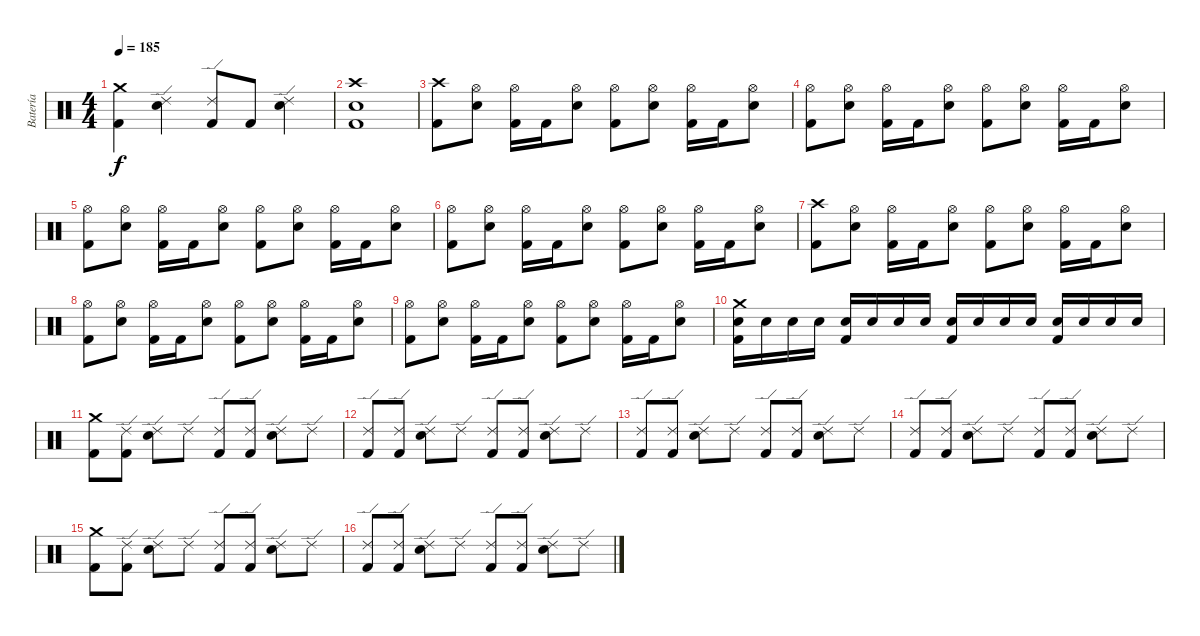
\track ("Batería" "Batería") {instrument percussion}
\staff {score}
\articulation defaults
\ts (4 4)
\tempo 185
\clef neutral
\ks c
("Crash medium (hit)" "Kick (hit) 2").4{dy f} ("Ride (edge) 2" "Electric Snare (hit)").4 ("Ride (edge) 2" "Kick (hit) 2").8 "Kick (hit) 2".8 ("Ride (edge) 2" "Electric Snare (hit)").4 |
("Crash high (hit)" "Electric Snare (hit)" "Kick (hit) 2").1 |
("Crash high (hit)" "Kick (hit) 2").8 ("Hi-Hat (open)" "Electric Snare (hit)").8 ("Hi-Hat (open)" "Kick (hit) 2").16 "Kick (hit) 2".16 ("Hi-Hat (open)" "Electric Snare (hit)").8 ("Hi-Hat (open)" "Kick (hit) 2").8 ("Hi-Hat (open)" "Electric Snare (hit)").8 ("Hi-Hat (open)" "Kick (hit) 2").16 "Kick (hit) 2".16 ("Hi-Hat (open)" "Electric Snare (hit)").8 |
("Hi-Hat (open)" "Kick (hit) 2").8 ("Hi-Hat (open)" "Electric Snare (hit)").8 ("Hi-Hat (open)" "Kick (hit) 2").16 "Kick (hit) 2".16 ("Hi-Hat (open)" "Electric Snare (hit)").8 ("Hi-Hat (open)" "Kick (hit) 2").8 ("Hi-Hat (open)" "Electric Snare (hit)").8 ("Hi-Hat (open)" "Kick (hit) 2").16 "Kick (hit) 2".16 ("Hi-Hat (open)" "Electric Snare (hit)").8 |
("Hi-Hat (open)" "Kick (hit) 2").8 ("Hi-Hat (open)" "Electric Snare (hit)").8 ("Hi-Hat (open)" "Kick (hit) 2").16 "Kick (hit) 2".16 ("Hi-Hat (open)" "Electric Snare (hit)").8 ("Hi-Hat (open)" "Kick (hit) 2").8 ("Hi-Hat (open)" "Electric Snare (hit)").8 ("Hi-Hat (open)" "Kick (hit) 2").16 "Kick (hit) 2".16 ("Hi-Hat (open)" "Electric Snare (hit)").8 |
("Hi-Hat (open)" "Kick (hit) 2").8 ("Hi-Hat (open)" "Electric Snare (hit)").8 ("Hi-Hat (open)" "Kick (hit) 2").16 "Kick (hit) 2".16 ("Hi-Hat (open)" "Electric Snare (hit)").8 ("Hi-Hat (open)" "Kick (hit) 2").8 ("Hi-Hat (open)" "Electric Snare (hit)").8 ("Hi-Hat (open)" "Kick (hit) 2").16 "Kick (hit) 2".16 ("Hi-Hat (open)" "Electric Snare (hit)").8 |
("Crash high (hit)" "Kick (hit) 2").8 ("Hi-Hat (open)" "Electric Snare (hit)").8 ("Hi-Hat (open)" "Kick (hit) 2").16 "Kick (hit) 2".16 ("Hi-Hat (open)" "Electric Snare (hit)").8 ("Hi-Hat (open)" "Kick (hit) 2").8 ("Hi-Hat (open)" "Electric Snare (hit)").8 ("Hi-Hat (open)" "Kick (hit) 2").16 "Kick (hit) 2".16 ("Hi-Hat (open)" "Electric Snare (hit)").8 |
("Hi-Hat (open)" "Kick (hit) 2").8 ("Hi-Hat (open)" "Electric Snare (hit)").8 ("Hi-Hat (open)" "Kick (hit) 2").16 "Kick (hit) 2".16 ("Hi-Hat (open)" "Electric Snare (hit)").8 ("Hi-Hat (open)" "Kick (hit) 2").8 ("Hi-Hat (open)" "Electric Snare (hit)").8 ("Hi-Hat (open)" "Kick (hit) 2").16 "Kick (hit) 2".16 ("Hi-Hat (open)" "Electric Snare (hit)").8 |
("Hi-Hat (open)" "Kick (hit) 2").8 ("Hi-Hat (open)" "Electric Snare (hit)").8 ("Hi-Hat (open)" "Kick (hit) 2").16 "Kick (hit) 2".16 ("Hi-Hat (open)" "Electric Snare (hit)").8 ("Hi-Hat (open)" "Kick (hit) 2").8 ("Hi-Hat (open)" "Electric Snare (hit)").8 ("Hi-Hat (open)" "Kick (hit) 2").16 "Kick (hit) 2".16 ("Hi-Hat (open)" "Electric Snare (hit)").8 |
("Crash medium (hit)" "Electric Snare (hit)" "Kick (hit) 2").16 "Electric Snare (hit)".16 "Electric Snare (hit)".16 "Electric Snare (hit)".16 ("Electric Snare (hit)" "Kick (hit) 2").16 "Electric Snare (hit)".16 "Electric Snare (hit)".16 "Electric Snare (hit)".16 ("Electric Snare (hit)" "Kick (hit) 2").16 "Electric Snare (hit)".16 "Electric Snare (hit)".16 "Electric Snare (hit)".16 ("Electric Snare (hit)" "Kick (hit) 2").16 "Electric Snare (hit)".16 "Electric Snare (hit)".16 "Electric Snare (hit)".16 |
("Crash medium (hit)" "Kick (hit) 2").8 ("Ride (edge) 2" "Kick (hit) 2").8 ("Ride (edge) 2" "Electric Snare (hit)").8 "Ride (edge) 2".8 ("Ride (edge) 2" "Kick (hit) 2").8 ("Ride (edge) 2" "Kick (hit) 2").8 ("Ride (edge) 2" "Electric Snare (hit)").8 "Ride (edge) 2".8 |
("Ride (edge) 2" "Kick (hit) 2").8 ("Ride (edge) 2" "Kick (hit) 2").8 ("Ride (edge) 2" "Electric Snare (hit)").8 "Ride (edge) 2".8 ("Ride (edge) 2" "Kick (hit) 2").8 ("Ride (edge) 2" "Kick (hit) 2").8 ("Ride (edge) 2" "Electric Snare (hit)").8 "Ride (edge) 2".8 |
("Ride (edge) 2" "Kick (hit) 2").8 ("Ride (edge) 2" "Kick (hit) 2").8 ("Ride (edge) 2" "Electric Snare (hit)").8 "Ride (edge) 2".8 ("Ride (edge) 2" "Kick (hit) 2").8 ("Ride (edge) 2" "Kick (hit) 2").8 ("Ride (edge) 2" "Electric Snare (hit)").8 "Ride (edge) 2".8 |
("Ride (edge) 2" "Kick (hit) 2").8 ("Ride (edge) 2" "Kick (hit) 2").8 ("Ride (edge) 2" "Electric Snare (hit)").8 "Ride (edge) 2".8 ("Ride (edge) 2" "Kick (hit) 2").8 ("Ride (edge) 2" "Kick (hit) 2").8 ("Ride (edge) 2" "Electric Snare (hit)").8 "Ride (edge) 2".8 |
("Crash medium (hit)" "Kick (hit) 2").8 ("Ride (edge) 2" "Kick (hit) 2").8 ("Ride (edge) 2" "Electric Snare (hit)").8 "Ride (edge) 2".8 ("Ride (edge) 2" "Kick (hit) 2").8 ("Ride (edge) 2" "Kick (hit) 2").8 ("Ride (edge) 2" "Electric Snare (hit)").8 "Ride (edge) 2".8 |
("Ride (edge) 2" "Kick (hit) 2").8 ("Ride (edge) 2" "Kick (hit) 2").8 ("Ride (edge) 2" "Electric Snare (hit)").8 "Ride (edge) 2".8 ("Ride (edge) 2" "Kick (hit) 2").8 ("Ride (edge) 2" "Kick (hit) 2").8 ("Ride (edge) 2" "Electric Snare (hit)").8 "Ride (edge) 2".8
